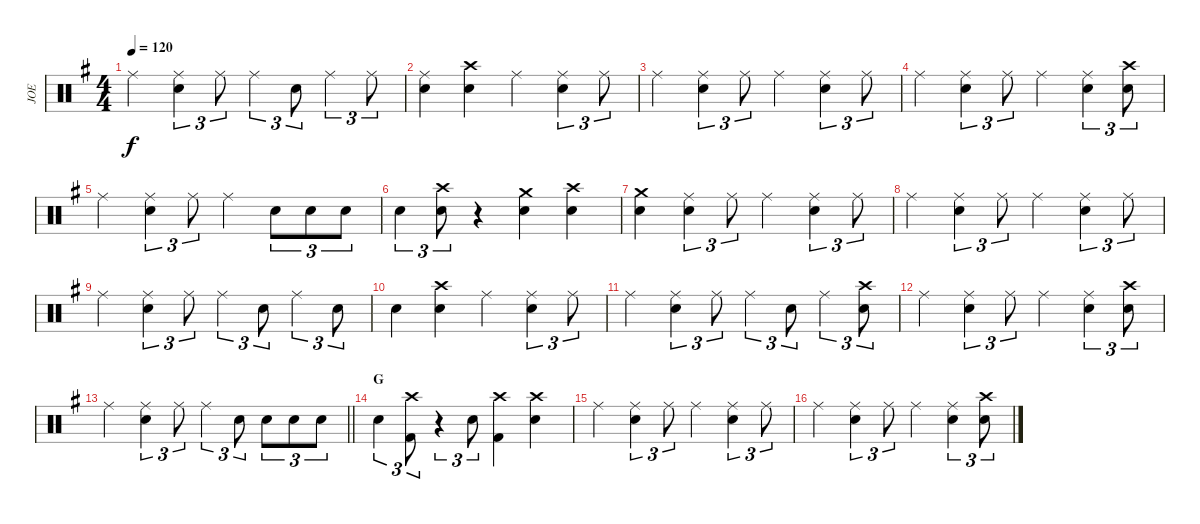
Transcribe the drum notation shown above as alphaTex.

\track ("JOE" "JOE") {instrument percussion}
\staff {score}
\articulation defaults
\ts (4 4)
\tempo 120
\clef neutral
\ks eminor "Ride (middle)".4{dy f}
("Ride (middle)" "Snare (hit) 2").4{tu (3 2)} "Ride (middle)".8{tu (3 2)} "Ride (middle)".4{tu (3 2)} "Snare (hit) 2".8{tu (3 2)} "Ride (middle)".4{tu (3 2)} "Ride (middle)".8{tu (3 2)} |
("Ride (middle)" "Snare (hit) 2").4 ("Crash high (hit)" "Snare (hit) 2").4 "Ride (middle)".4 ("Ride (middle)" "Snare (hit) 2").4{tu (3 2)} "Ride (middle)".8{tu (3 2)} |
"Ride (middle)".4 ("Ride (middle)" "Snare (hit) 2").4{tu (3 2)} "Ride (middle)".8{tu (3 2)} "Ride (middle)".4 ("Ride (middle)" "Snare (hit) 2").4{tu (3 2)} "Ride (middle)".8{tu (3 2)} |
"Ride (middle)".4 ("Ride (middle)" "Snare (hit) 2").4{tu (3 2)} "Ride (middle)".8{tu (3 2)} "Ride (middle)".4 ("Ride (middle)" "Snare (hit) 2").4{tu (3 2)} ("Crash high (hit)" "Snare (hit) 2").8{tu (3 2)} |
"Ride (middle)".4 ("Ride (middle)" "Snare (hit) 2").4{tu (3 2)} "Ride (middle)".8{tu (3 2)} "Ride (middle)".4 "Snare (hit) 2".8{tu (3 2)} "Snare (hit) 2".8{tu (3 2)} "Snare (hit) 2".8{tu (3 2)} |
"Snare (hit) 2".4{tu (3 2)} ("Crash high (hit)" "Snare (hit) 2").8{tu (3 2)} r.4 ("Crash medium (hit)" "Snare (hit) 2").4 ("Crash high (hit)" "Snare (hit) 2").4 |
("Crash medium (hit)" "Snare (hit) 2").4 ("Ride (middle)" "Snare (hit) 2").4{tu (3 2)} "Ride (middle)".8{tu (3 2)} "Ride (middle)".4 ("Ride (middle)" "Snare (hit) 2").4{tu (3 2)} "Ride (middle)".8{tu (3 2)} |
"Ride (middle)".4 ("Ride (middle)" "Snare (hit) 2").4{tu (3 2)} "Ride (middle)".8{tu (3 2)} "Ride (middle)".4 ("Ride (middle)" "Snare (hit) 2").4{tu (3 2)} "Ride (middle)".8{tu (3 2)} |
"Ride (middle)".4 ("Ride (middle)" "Snare (hit) 2").4{tu (3 2)} "Ride (middle)".8{tu (3 2)} "Ride (middle)".4{tu (3 2)} "Snare (hit) 2".8{tu (3 2)} "Ride (middle)".4{tu (3 2)} "Snare (hit) 2".8{tu (3 2)} |
"Snare (hit) 2".4 ("Crash high (hit)" "Snare (hit) 2").4 "Ride (middle)".4 ("Ride (middle)" "Snare (hit) 2").4{tu (3 2)} "Ride (middle)".8{tu (3 2)} |
"Ride (middle)".4 ("Ride (middle)" "Snare (hit) 2").4{tu (3 2)} "Ride (middle)".8{tu (3 2)} "Ride (middle)".4{tu (3 2)} "Snare (hit) 2".8{tu (3 2)} "Ride (middle)".4{tu (3 2)} ("Crash high (hit)" "Snare (hit) 2").8{tu (3 2)} |
"Ride (middle)".4 ("Ride (middle)" "Snare (hit) 2").4{tu (3 2)} "Ride (middle)".8{tu (3 2)} "Ride (middle)".4 ("Ride (middle)" "Snare (hit) 2").4{tu (3 2)} ("Crash high (hit)" "Snare (hit) 2").8{tu (3 2)} |
\barLineRight lightlight "Ride (middle)".4
("Ride (middle)" "Snare (hit) 2").4{tu (3 2)} "Ride (middle)".8{tu (3 2)} "Ride (middle)".4{tu (3 2)} "Snare (hit) 2".8{tu (3 2)} "Snare (hit) 2".8{tu (3 2)} "Snare (hit) 2".8{tu (3 2)} "Snare (hit) 2".8{tu (3 2)} |
\section ("" "G")
"Snare (hit) 2".4{tu (3 2)} ("Crash high (hit)" "Kick (hit) 2").8{tu (3 2)} r.4{tu (3 2)} "Snare (hit) 2".8{tu (3 2)} ("Crash high (hit)" "Kick (hit) 2").4 ("Crash high (hit)" "Snare (hit) 2").4 |
"Ride (middle)".4 ("Ride (middle)" "Snare (hit) 2").4{tu (3 2)} "Ride (middle)".8{tu (3 2)} "Ride (middle)".4 ("Ride (middle)" "Snare (hit) 2").4{tu (3 2)} "Ride (middle)".8{tu (3 2)} |
"Ride (middle)".4 ("Ride (middle)" "Snare (hit) 2").4{tu (3 2)} "Ride (middle)".8{tu (3 2)} "Ride (middle)".4 ("Ride (middle)" "Snare (hit) 2").4{tu (3 2)} ("Crash high (hit)" "Snare (hit) 2").8{tu (3 2)}
